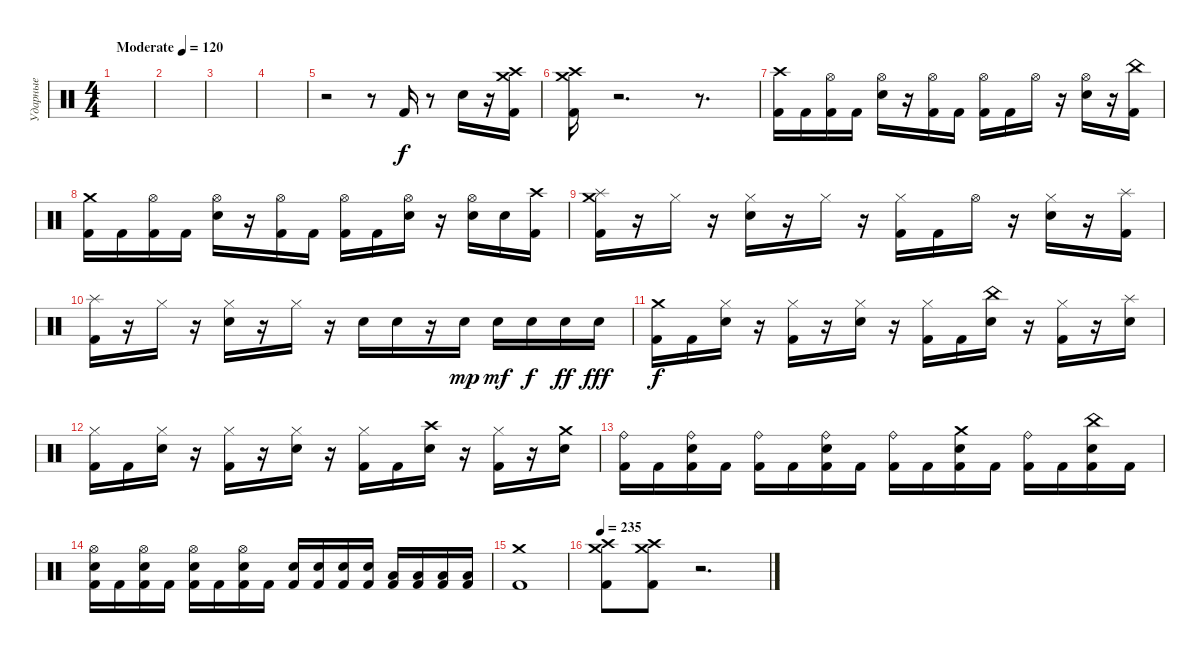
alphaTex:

\track ("Ударные" "Ударные") {instrument percussion}
\staff {score}
\articulation defaults
\ts (4 4)
\tempo (120 "Moderate")
\clef neutral
\ks c
|
|
|
|
r.2 r.8 "Kick (hit) 2".16 r.8 "Snare (hit) 2".16 r.16 ("Crash medium (hit)" "Crash high (hit)" "Kick (hit) 2").16 |
("Crash medium (hit)" "Crash high (hit)" "Kick (hit) 2").16 r.2{d} r.8{d} |
("Crash high (hit)" "Kick (hit) 2").16 "Kick (hit) 2".16 ("Hi-Hat (open)" "Kick (hit) 2").16 "Kick (hit) 2".16 ("Hi-Hat (open)" "Snare (hit) 2").16 r.16 ("Hi-Hat (open)" "Kick (hit) 2").16 "Kick (hit) 2".16 ("Hi-Hat (open)" "Kick (hit) 2").16 "Kick (hit) 2".16 "Hi-Hat (open)".16 r.16 ("Hi-Hat (open)" "Snare (hit) 2").16 r.16 ("China (hit)" "Kick (hit) 2").16 |
("Crash medium (hit)" "Kick (hit) 2").16 "Kick (hit) 2".16 ("Hi-Hat (open)" "Kick (hit) 2").16 "Kick (hit) 2".16 ("Hi-Hat (open)" "Snare (hit) 2").16 r.16 ("Hi-Hat (open)" "Kick (hit) 2").16 "Kick (hit) 2".16 ("Hi-Hat (open)" "Kick (hit) 2").16 "Kick (hit) 2".16 ("Hi-Hat (open)" "Snare (hit) 2").16 r.16 ("Hi-Hat (open)" "Snare (hit) 2").16 "Snare (hit) 2".16 ("Crash high (hit)" "Kick (hit) 2").16 |
("Splash (hit)" "Crash medium (hit)" "Kick (hit) 2").16 r.16 "Hi-Hat (closed)".16 r.16 ("Hi-Hat (closed)" "Snare (hit) 2").16 r.16 "Hi-Hat (closed)".16 r.16 ("Hi-Hat (closed)" "Kick (hit) 2").16 "Kick (hit) 2".16 "Hi-Hat (open)".16 r.16 ("Hi-Hat (closed)" "Snare (hit) 2").16 r.16 ("Splash (hit)" "Kick (hit) 2").16 |
("Splash (hit)" "Kick (hit) 2").16 r.16 "Hi-Hat (closed)".16 r.16 ("Hi-Hat (closed)" "Snare (hit) 2").16 r.16 "Hi-Hat (closed)".16 r.16 "Snare (hit) 2".16 "Snare (hit) 2".16 r.16 "Snare (hit) 2".16{dy mp} "Snare (hit) 2".16{dy mf} "Snare (hit) 2".16{dy f} "Snare (hit) 2".16{dy ff} "Snare (hit) 2".16{dy fff} |
("Crash medium (hit)" "Kick (hit) 2").16{dy f} "Kick (hit) 2".16 ("Hi-Hat (closed)" "Snare (hit) 2").16 r.16 ("Hi-Hat (closed)" "Kick (hit) 2").16 r.16 ("Hi-Hat (closed)" "Snare (hit) 2").16 r.16 ("Hi-Hat (closed)" "Kick (hit) 2").16 "Kick (hit) 2".16 ("China (hit)" "Snare (hit) 2").16 r.16 ("Hi-Hat (closed)" "Kick (hit) 2").16 r.16 ("Splash (hit)" "Snare (hit) 2").16 |
("Hi-Hat (closed)" "Kick (hit) 2").16 "Kick (hit) 2".16 ("Hi-Hat (closed)" "Snare (hit) 2").16 r.16 ("Hi-Hat (closed)" "Kick (hit) 2").16 r.16 ("Hi-Hat (closed)" "Snare (hit) 2").16 r.16 ("Hi-Hat (closed)" "Kick (hit) 2").16 "Kick (hit) 2".16 ("Crash high (hit)" "Snare (hit) 2").16 r.16 ("Hi-Hat (closed)" "Kick (hit) 2").16 r.16 ("Crash medium (hit)" "Snare (hit) 2").16 |
("Ride (bell)" "Kick (hit) 2").16 "Kick (hit) 2".16 ("Ride (bell)" "Snare (hit) 2" "Kick (hit) 2").16 "Kick (hit) 2".16 ("Ride (bell)" "Kick (hit) 2").16 "Kick (hit) 2".16 ("Ride (bell)" "Snare (hit) 2" "Kick (hit) 2").16 "Kick (hit) 2".16 ("Ride (bell)" "Kick (hit) 2").16 "Kick (hit) 2".16 ("Crash medium (hit)" "Snare (hit) 2" "Kick (hit) 2").16 "Kick (hit) 2".16 ("Ride (bell)" "Kick (hit) 2").16 "Kick (hit) 2".16 ("China (hit)" "Snare (hit) 2" "Kick (hit) 2").16 "Kick (hit) 2".16 |
("Hi-Hat (open)" "Snare (hit) 2" "Kick (hit) 2").16 "Kick (hit) 2".16 ("Hi-Hat (open)" "Snare (hit) 2" "Kick (hit) 2").16 "Kick (hit) 2".16 ("Hi-Hat (open)" "Snare (hit) 2" "Kick (hit) 2").16 "Kick (hit) 2".16 ("Hi-Hat (open)" "Snare (hit) 2" "Kick (hit) 2").16 "Kick (hit) 2".16 ("Snare (hit) 2" "Kick (hit) 2").16 ("Snare (hit) 2" "Kick (hit) 2").16 ("Snare (hit) 2" "Kick (hit) 2").16 ("Snare (hit) 2" "Kick (hit) 2").16 ("Low Tom (hit)" "Kick (hit) 2").16 ("Low Tom (hit)" "Kick (hit) 2").16 ("Low Tom (hit)" "Kick (hit) 2").16 ("Low Tom (hit)" "Kick (hit) 2").16 |
("Crash medium (hit)" "Kick (hit) 2").1 |
\tempo 235
("Crash medium (hit)" "Crash high (hit)" "Kick (hit) 2").8 ("Crash medium (hit)" "Crash high (hit)" "Kick (hit) 2").8 r.2{d}
